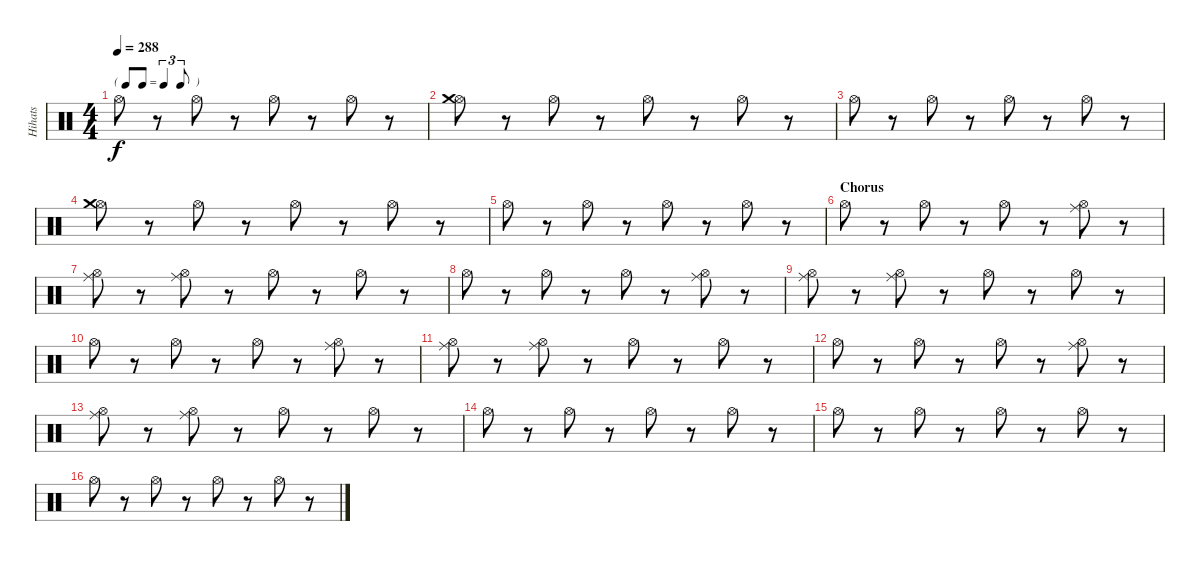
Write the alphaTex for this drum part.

\track ("Hihats" "Hihats") {instrument percussion}
\staff {score}
\articulation defaults
\ts (4 4)
\tf triplet8th
\tempo 288
\clef neutral
\ks c "Hi-Hat (open)".8{dy f}
r.8 "Hi-Hat (open)".8 r.8 "Hi-Hat (open)".8 r.8 "Hi-Hat (open)".8 r.8 |
("Hi-Hat (open)" "Crash medium (hit)").8 r.8 "Hi-Hat (open)".8 r.8 "Hi-Hat (open)".8 r.8 "Hi-Hat (open)".8 r.8 |
"Hi-Hat (open)".8 r.8 "Hi-Hat (open)".8 r.8 "Hi-Hat (open)".8 r.8 "Hi-Hat (open)".8 r.8 |
("Hi-Hat (open)" "Crash medium (hit)").8 r.8 "Hi-Hat (open)".8 r.8 "Hi-Hat (open)".8 r.8 "Hi-Hat (open)".8 r.8 |
"Hi-Hat (open)".8 r.8 "Hi-Hat (open)".8 r.8 "Hi-Hat (open)".8 r.8 "Hi-Hat (open)".8 r.8 |
\section ("" "Chorus")
"Hi-Hat (open)".8 r.8 "Hi-Hat (open)".8 r.8 "Hi-Hat (open)".8 r.8 ("Hi-Hat (open)" "Ride (middle)").8 r.8 |
("Hi-Hat (open)" "Ride (middle)").8 r.8 ("Hi-Hat (open)" "Ride (middle)").8 r.8 "Hi-Hat (open)".8 r.8 "Hi-Hat (open)".8 r.8 |
"Hi-Hat (open)".8 r.8 "Hi-Hat (open)".8 r.8 "Hi-Hat (open)".8 r.8 ("Hi-Hat (open)" "Ride (middle)").8 r.8 |
("Hi-Hat (open)" "Ride (middle)").8 r.8 ("Hi-Hat (open)" "Ride (middle)").8 r.8 "Hi-Hat (open)".8 r.8 "Hi-Hat (open)".8 r.8 |
"Hi-Hat (open)".8 r.8 "Hi-Hat (open)".8 r.8 "Hi-Hat (open)".8 r.8 ("Hi-Hat (open)" "Ride (middle)").8 r.8 |
("Hi-Hat (open)" "Ride (middle)").8 r.8 ("Hi-Hat (open)" "Ride (middle)").8 r.8 "Hi-Hat (open)".8 r.8 "Hi-Hat (open)".8 r.8 |
"Hi-Hat (open)".8 r.8 "Hi-Hat (open)".8 r.8 "Hi-Hat (open)".8 r.8 ("Hi-Hat (open)" "Ride (middle)").8 r.8 |
("Hi-Hat (open)" "Ride (middle)").8 r.8 ("Hi-Hat (open)" "Ride (middle)").8 r.8 "Hi-Hat (open)".8 r.8 "Hi-Hat (open)".8 r.8 |
"Hi-Hat (open)".8 r.8 "Hi-Hat (open)".8 r.8 "Hi-Hat (open)".8 r.8 "Hi-Hat (open)".8 r.8 |
"Hi-Hat (open)".8 r.8 "Hi-Hat (open)".8 r.8 "Hi-Hat (open)".8 r.8 "Hi-Hat (open)".8 r.8 |
"Hi-Hat (open)".8 r.8 "Hi-Hat (open)".8 r.8 "Hi-Hat (open)".8 r.8 "Hi-Hat (open)".8 r.8
